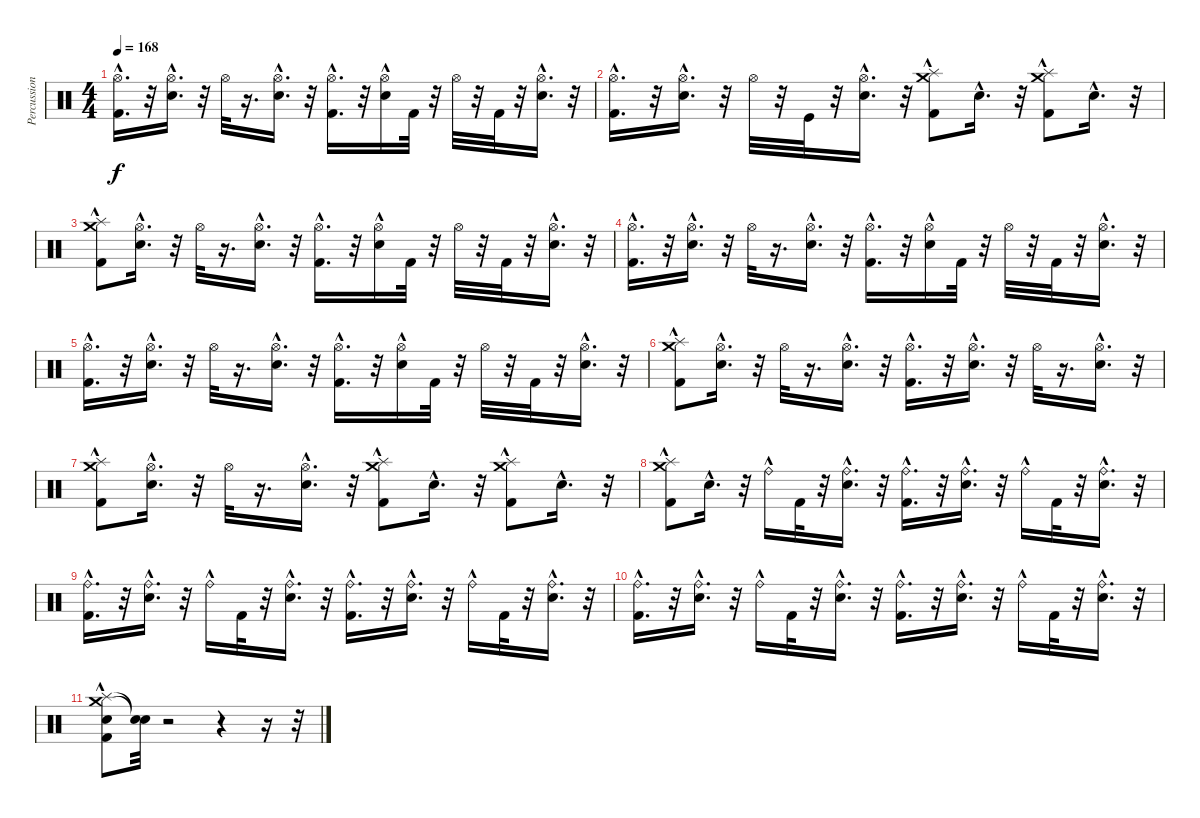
\track ("Percussion" "Percussion") {instrument percussion}
\staff {score}
\articulation defaults
\ts (4 4)
\tempo 168
\clef neutral
\ks c
("Kick (hit) 2"{hac} "Hi-Hat (open)").16{d dy f} r.32 ("Electric Snare (hit)"{hac} "Hi-Hat (open)").16{d} r.32 "Hi-Hat (open)".32 r.16{d} ("Electric Snare (hit)"{hac} "Hi-Hat (open)").16{d} r.32 ("Kick (hit) 2"{hac} "Hi-Hat (open)").16{d} r.32 ("Electric Snare (hit)"{hac} "Hi-Hat (open)").16 "Kick (hit) 2".32 r.32 "Hi-Hat (open)".32 r.32 "Kick (hit) 2".32 r.32 ("Electric Snare (hit)"{hac} "Hi-Hat (open)").16{d} r.32 |
("Kick (hit) 2"{hac} "Hi-Hat (open)").16{d} r.32 ("Electric Snare (hit)"{hac} "Hi-Hat (open)").16{d} r.32 "Hi-Hat (open)".32 r.32 "Kick (hit)".32 r.32 ("Electric Snare (hit)"{hac} "Hi-Hat (open)").16{d} r.32 ("Kick (hit) 2"{hac} "Splash (hit)" "Crash medium (hit)").8 "Electric Snare (hit)"{hac}.16{d} r.32 ("Kick (hit) 2"{hac} "Crash medium (hit)" "Splash (hit)").8 "Electric Snare (hit)"{hac}.16{d} r.32 |
("Crash medium (hit)" "Splash (hit)" "Kick (hit) 2"{hac}).8 ("Electric Snare (hit)"{hac} "Hi-Hat (open)").16{d} r.32 "Hi-Hat (open)".32 r.16{d} ("Electric Snare (hit)"{hac} "Hi-Hat (open)").16{d} r.32 ("Kick (hit) 2"{hac} "Hi-Hat (open)").16{d} r.32 ("Electric Snare (hit)"{hac} "Hi-Hat (open)").16 "Kick (hit) 2".32 r.32 "Hi-Hat (open)".32 r.32 "Kick (hit) 2".32 r.32 ("Electric Snare (hit)"{hac} "Hi-Hat (open)").16{d} r.32 |
("Kick (hit) 2"{hac} "Hi-Hat (open)").16{d} r.32 ("Electric Snare (hit)"{hac} "Hi-Hat (open)").16{d} r.32 "Hi-Hat (open)".32 r.16{d} ("Electric Snare (hit)"{hac} "Hi-Hat (open)").16{d} r.32 ("Kick (hit) 2"{hac} "Hi-Hat (open)").16{d} r.32 ("Electric Snare (hit)"{hac} "Hi-Hat (open)").16 "Kick (hit) 2".32 r.32 "Hi-Hat (open)".32 r.32 "Kick (hit) 2".32 r.32 ("Electric Snare (hit)"{hac} "Hi-Hat (open)").16{d} r.32 |
("Kick (hit) 2"{hac} "Hi-Hat (open)").16{d} r.32 ("Electric Snare (hit)"{hac} "Hi-Hat (open)").16{d} r.32 "Hi-Hat (open)".32 r.16{d} ("Electric Snare (hit)"{hac} "Hi-Hat (open)").16{d} r.32 ("Kick (hit) 2"{hac} "Hi-Hat (open)").16{d} r.32 ("Electric Snare (hit)"{hac} "Hi-Hat (open)").16 "Kick (hit) 2".32 r.32 "Hi-Hat (open)".32 r.32 "Kick (hit) 2".32 r.32 ("Electric Snare (hit)"{hac} "Hi-Hat (open)").16{d} r.32 |
("Crash medium (hit)" "Splash (hit)" "Kick (hit) 2"{hac}).8 ("Electric Snare (hit)"{hac} "Hi-Hat (open)").16{d} r.32 "Hi-Hat (open)".32 r.16{d} ("Electric Snare (hit)"{hac} "Hi-Hat (open)").16{d} r.32 ("Kick (hit) 2"{hac} "Hi-Hat (open)").16{d} r.32 ("Electric Snare (hit)"{hac} "Hi-Hat (open)").16{d} r.32 "Hi-Hat (open)".32 r.16{d} ("Electric Snare (hit)"{hac} "Hi-Hat (open)").16{d} r.32 |
("Crash medium (hit)" "Splash (hit)" "Kick (hit) 2"{hac}).8 ("Electric Snare (hit)"{hac} "Hi-Hat (open)").16{d} r.32 "Hi-Hat (open)".32 r.16{d} ("Electric Snare (hit)"{hac} "Hi-Hat (open)").16{d} r.32 ("Kick (hit) 2"{hac} "Splash (hit)" "Crash medium (hit)").8 "Electric Snare (hit)"{hac}.16{d} r.32 ("Splash (hit)" "Crash medium (hit)" "Kick (hit) 2"{hac}).8 "Electric Snare (hit)"{hac}.16{d} r.32 |
("Kick (hit) 2"{hac} "Crash medium (hit)" "Splash (hit)").8 "Electric Snare (hit)"{hac}.16{d} r.32 "Ride (bell)"{hac}.16 "Kick (hit) 2".32 r.32 ("Electric Snare (hit)"{hac} "Ride (bell)"{hac}).16{d} r.32 ("Kick (hit) 2"{hac} "Ride (bell)"{hac}).16{d} r.32 ("Electric Snare (hit)"{hac} "Ride (bell)"{hac}).16{d} r.32 "Ride (bell)"{hac}.16 "Kick (hit) 2".32 r.32 ("Electric Snare (hit)"{hac} "Ride (bell)"{hac}).16{d} r.32 |
("Kick (hit) 2"{hac} "Ride (bell)"{hac}).16{d} r.32 ("Electric Snare (hit)"{hac} "Ride (bell)"{hac}).16{d} r.32 "Ride (bell)"{hac}.16 "Kick (hit) 2".32 r.32 ("Electric Snare (hit)"{hac} "Ride (bell)"{hac}).16{d} r.32 ("Kick (hit) 2"{hac} "Ride (bell)"{hac}).16{d} r.32 ("Electric Snare (hit)"{hac} "Ride (bell)"{hac}).16{d} r.32 "Ride (bell)"{hac}.16 "Kick (hit) 2".32 r.32 ("Electric Snare (hit)"{hac} "Ride (bell)"{hac}).16{d} r.32 |
("Kick (hit) 2"{hac} "Ride (bell)"{hac}).16{d} r.32 ("Electric Snare (hit)"{hac} "Ride (bell)"{hac}).16{d} r.32 "Ride (bell)"{hac}.16 "Kick (hit) 2".32 r.32 ("Electric Snare (hit)"{hac} "Ride (bell)"{hac}).16{d} r.32 ("Kick (hit) 2"{hac} "Ride (bell)"{hac}).16{d} r.32 ("Electric Snare (hit)"{hac} "Ride (bell)"{hac}).16{d} r.32 "Ride (bell)"{hac}.16 "Kick (hit) 2".32 r.32 ("Electric Snare (hit)"{hac} "Ride (bell)"{hac}).16{d} r.32 |
("Splash (hit)" "Crash medium (hit)" "Kick (hit) 2"{hac} "Electric Snare (hit)"{hac}).8 ("Snare (hit)"{t} "Snare (hit)"{t}).32 r.2 r.4 r.16 r.32
